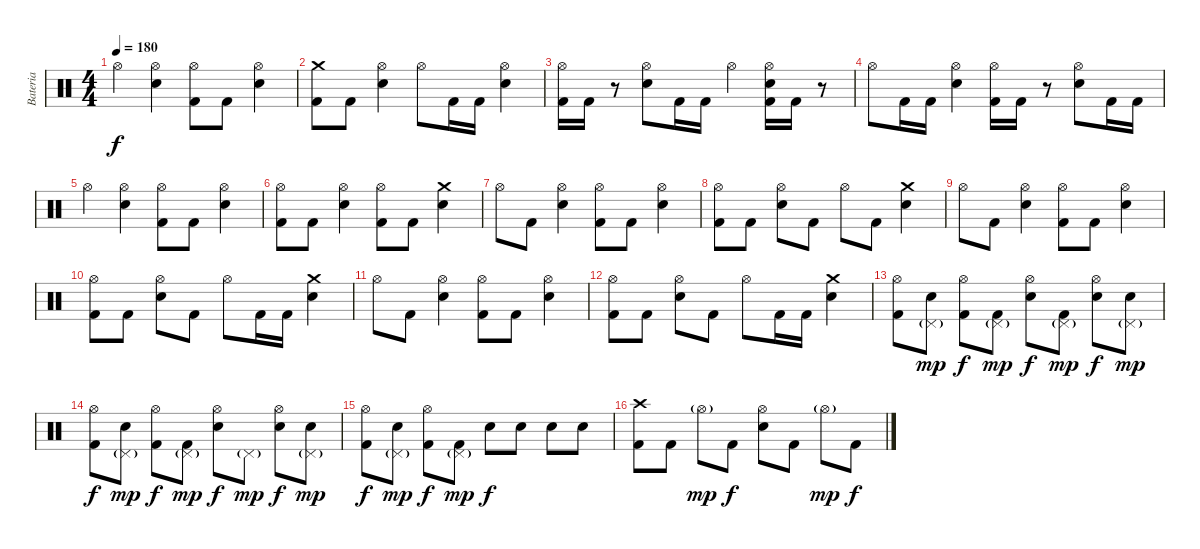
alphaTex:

\track ("Bateria" "Bateria") {instrument percussion}
\staff {score}
\articulation defaults
\ts (4 4)
\tempo 180
\clef neutral
\ks c "Hi-Hat (open)".4{dy f}
("Hi-Hat (open)" "Electric Snare (hit)").4 ("Hi-Hat (open)" "Kick (hit) 2").8 "Kick (hit) 2".8 ("Hi-Hat (open)" "Electric Snare (hit)").4 |
("Crash medium (hit)" "Kick (hit) 2").8 "Kick (hit) 2".8 ("Hi-Hat (open)" "Electric Snare (hit)").4 "Hi-Hat (open)".8 "Kick (hit) 2".16 "Kick (hit) 2".16 ("Hi-Hat (open)" "Electric Snare (hit)").4 |
("Hi-Hat (open)" "Kick (hit) 2").16 "Kick (hit) 2".16 r.8 ("Hi-Hat (open)" "Electric Snare (hit)").8 "Kick (hit) 2".16 "Kick (hit) 2".16 "Hi-Hat (open)".4 ("Hi-Hat (open)" "Electric Snare (hit)" "Kick (hit) 2").16 "Kick (hit) 2".16 r.8 |
"Hi-Hat (open)".8 "Kick (hit) 2".16 "Kick (hit) 2".16 ("Hi-Hat (open)" "Electric Snare (hit)").4 ("Hi-Hat (open)" "Kick (hit) 2").16 "Kick (hit) 2".16 r.8 ("Hi-Hat (open)" "Electric Snare (hit)").8 "Kick (hit) 2".16 "Kick (hit) 2".16 |
"Hi-Hat (open)".4 ("Hi-Hat (open)" "Electric Snare (hit)").4 ("Hi-Hat (open)" "Kick (hit) 2").8 "Kick (hit) 2".8 ("Hi-Hat (open)" "Electric Snare (hit)").4 |
("Hi-Hat (open)" "Kick (hit) 2").8 "Kick (hit) 2".8 ("Hi-Hat (open)" "Electric Snare (hit)").4 ("Hi-Hat (open)" "Kick (hit) 2").8 "Kick (hit) 2".8 ("Crash medium (hit)" "Electric Snare (hit)").4 |
"Hi-Hat (open)".8 "Kick (hit) 2".8 ("Hi-Hat (open)" "Electric Snare (hit)").4 ("Hi-Hat (open)" "Kick (hit) 2").8 "Kick (hit) 2".8 ("Hi-Hat (open)" "Electric Snare (hit)").4 |
("Hi-Hat (open)" "Kick (hit) 2").8 "Kick (hit) 2".8 ("Hi-Hat (open)" "Electric Snare (hit)").8 "Kick (hit) 2".8 "Hi-Hat (open)".8 "Kick (hit) 2".8 ("Crash medium (hit)" "Electric Snare (hit)").4 |
"Hi-Hat (open)".8 "Kick (hit) 2".8 ("Hi-Hat (open)" "Electric Snare (hit)").4 ("Hi-Hat (open)" "Kick (hit) 2").8 "Kick (hit) 2".8 ("Hi-Hat (open)" "Electric Snare (hit)").4 |
("Hi-Hat (open)" "Kick (hit) 2").8 "Kick (hit) 2".8 ("Hi-Hat (open)" "Electric Snare (hit)").8 "Kick (hit) 2".8 "Hi-Hat (open)".8 "Kick (hit) 2".16 "Kick (hit) 2".16 ("Crash medium (hit)" "Electric Snare (hit)").4 |
"Hi-Hat (open)".8 "Kick (hit) 2".8 ("Hi-Hat (open)" "Electric Snare (hit)").4 ("Hi-Hat (open)" "Kick (hit) 2").8 "Kick (hit) 2".8 ("Hi-Hat (open)" "Electric Snare (hit)").4 |
("Hi-Hat (open)" "Kick (hit) 2").8 "Kick (hit) 2".8 ("Hi-Hat (open)" "Electric Snare (hit)").8 "Kick (hit) 2".8 "Hi-Hat (open)".8 "Kick (hit) 2".16 "Kick (hit) 2".16 ("Crash medium (hit)" "Electric Snare (hit)").4 |
("Hi-Hat (open)" "Kick (hit) 2").8 ("Pedal Hi-Hat (hit)"{g} "Electric Snare (hit)").8{dy mp} ("Hi-Hat (open)" "Kick (hit) 2").8{dy f} ("Pedal Hi-Hat (hit)"{g} "Kick (hit) 2").8{dy mp} ("Hi-Hat (open)" "Electric Snare (hit)").8{dy f} ("Pedal Hi-Hat (hit)"{g} "Kick (hit) 2").8{dy mp} ("Hi-Hat (open)" "Electric Snare (hit)").8{dy f} ("Pedal Hi-Hat (hit)"{g} "Electric Snare (hit)").8{dy mp} |
("Hi-Hat (open)" "Kick (hit) 2").8{dy f} ("Pedal Hi-Hat (hit)"{g} "Electric Snare (hit)").8{dy mp} ("Hi-Hat (open)" "Kick (hit) 2").8{dy f} ("Pedal Hi-Hat (hit)"{g} "Kick (hit) 2").8{dy mp} ("Hi-Hat (open)" "Electric Snare (hit)").8{dy f} "Pedal Hi-Hat (hit)"{g}.8{dy mp} ("Hi-Hat (open)" "Electric Snare (hit)").8{dy f} ("Pedal Hi-Hat (hit)"{g} "Electric Snare (hit)").8{dy mp} |
("Hi-Hat (open)" "Kick (hit) 2").8{dy f} ("Pedal Hi-Hat (hit)"{g} "Electric Snare (hit)").8{dy mp} ("Hi-Hat (open)" "Kick (hit) 2").8{dy f} ("Pedal Hi-Hat (hit)"{g} "Kick (hit) 2").8{dy mp} "Electric Snare (hit)".8{dy f} "Electric Snare (hit)".8 "Electric Snare (hit)".8 "Electric Snare (hit)".8 |
("Crash high (hit)" "Kick (hit) 2").8 "Kick (hit) 2".8 "Hi-Hat (open)"{g}.8{dy mp} "Kick (hit) 2".8{dy f} ("Hi-Hat (open)" "Electric Snare (hit)").8 "Kick (hit) 2".8 "Hi-Hat (open)"{g}.8{dy mp} "Kick (hit) 2".8{dy f}
